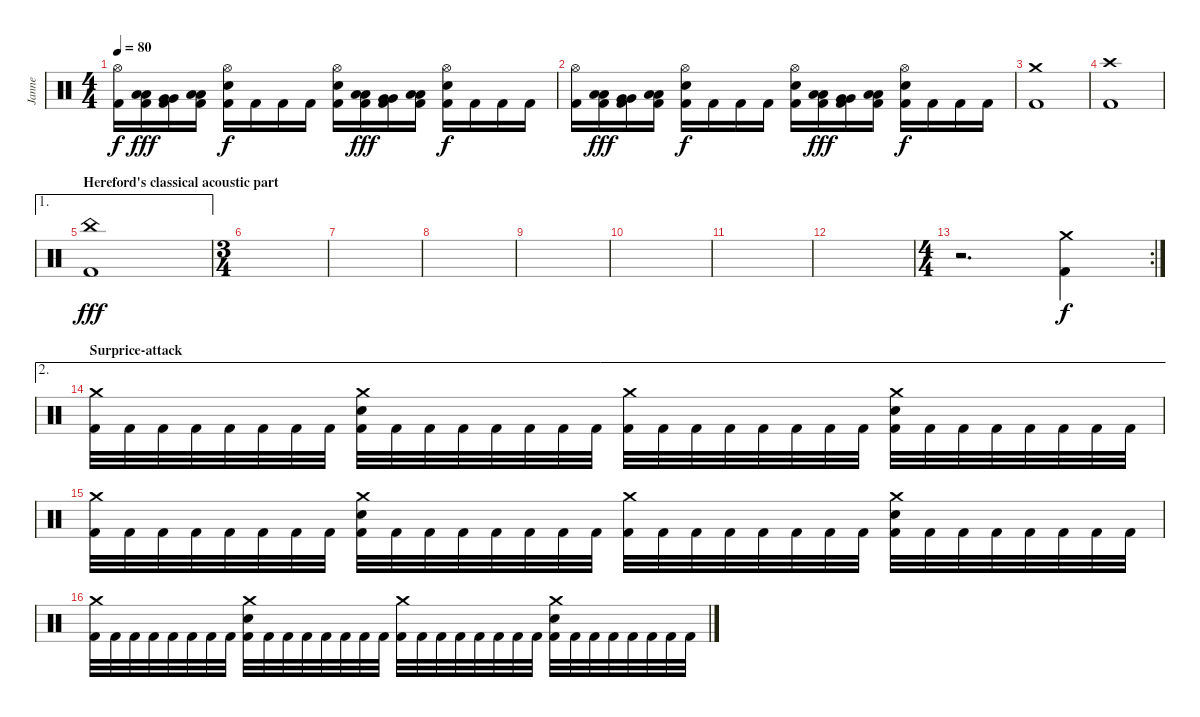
\track ("Janne" "Janne") {instrument percussion}
\staff {score}
\articulation defaults
\ts (4 4)
\tempo 80
\clef neutral
\ks c
("Hi-Hat (open)" "Kick (hit) 2").16{dy f} ("Low Tom (hit)" "Low Tom (hit)" "Kick (hit) 2").16{dy fff} ("Very Low Tom (hit)" "Very Low Tom (hit)" "Kick (hit) 2").16 ("Low Floor Tom (hit)" "Low Floor Tom (hit)" "Kick (hit) 2").16 ("Hi-Hat (open)" "Electric Snare (hit)" "Kick (hit) 2").16{dy f} "Kick (hit) 2".16 "Kick (hit) 2".16 "Kick (hit) 2".16 ("Hi-Hat (open)" "Electric Snare (hit)" "Kick (hit) 2").16 ("Low Tom (hit)" "Low Tom (hit)" "Kick (hit) 2").16{dy fff} ("Very Low Tom (hit)" "Very Low Tom (hit)" "Kick (hit) 2").16 ("Low Floor Tom (hit)" "Low Floor Tom (hit)" "Kick (hit) 2").16 ("Hi-Hat (open)" "Electric Snare (hit)" "Kick (hit) 2").16{dy f} "Kick (hit) 2".16 "Kick (hit) 2".16 "Kick (hit) 2".16 |
("Hi-Hat (open)" "Kick (hit) 2").16 ("Low Tom (hit)" "Low Tom (hit)" "Kick (hit) 2").16{dy fff} ("Very Low Tom (hit)" "Very Low Tom (hit)" "Kick (hit) 2").16 ("Low Floor Tom (hit)" "Low Floor Tom (hit)" "Kick (hit) 2").16 ("Hi-Hat (open)" "Electric Snare (hit)" "Kick (hit) 2").16{dy f} "Kick (hit) 2".16 "Kick (hit) 2".16 "Kick (hit) 2".16 ("Hi-Hat (open)" "Electric Snare (hit)" "Kick (hit) 2").16 ("Low Tom (hit)" "Low Tom (hit)" "Kick (hit) 2").16{dy fff} ("Very Low Tom (hit)" "Very Low Tom (hit)" "Kick (hit) 2").16 ("Low Floor Tom (hit)" "Low Floor Tom (hit)" "Kick (hit) 2").16 ("Hi-Hat (open)" "Electric Snare (hit)" "Kick (hit) 2").16{dy f} "Kick (hit) 2".16 "Kick (hit) 2".16 "Kick (hit) 2".16 |
("Crash medium (hit)" "Kick (hit) 2").1 |
("Crash high (hit)" "Kick (hit) 2").1 |
\ae 1
\section ("" "Hereford's classical acoustic part")
("China (hit)" "Kick (hit) 2").1{dy fff} |
\ts (3 4)
|
|
|
|
|
|
|
\rc 2
\ts (4 4)
r.2{d} ("Crash medium (hit)" "Kick (hit) 2").4{dy f} |
\ae 2
\section ("" "Surprice-attack")
("Crash medium (hit)" "Kick (hit) 2").32 "Kick (hit) 2".32 "Kick (hit) 2".32 "Kick (hit) 2".32 "Kick (hit) 2".32 "Kick (hit) 2".32 "Kick (hit) 2".32 "Kick (hit) 2".32 ("Crash medium (hit)" "Electric Snare (hit)" "Kick (hit) 2").32 "Kick (hit) 2".32 "Kick (hit) 2".32 "Kick (hit) 2".32 "Kick (hit) 2".32 "Kick (hit) 2".32 "Kick (hit) 2".32 "Kick (hit) 2".32 ("Crash medium (hit)" "Kick (hit) 2").32 "Kick (hit) 2".32 "Kick (hit) 2".32 "Kick (hit) 2".32 "Kick (hit) 2".32 "Kick (hit) 2".32 "Kick (hit) 2".32 "Kick (hit) 2".32 ("Crash medium (hit)" "Electric Snare (hit)" "Kick (hit) 2").32 "Kick (hit) 2".32 "Kick (hit) 2".32 "Kick (hit) 2".32 "Kick (hit) 2".32 "Kick (hit) 2".32 "Kick (hit) 2".32 "Kick (hit) 2".32 |
("Crash medium (hit)" "Kick (hit) 2").32 "Kick (hit) 2".32 "Kick (hit) 2".32 "Kick (hit) 2".32 "Kick (hit) 2".32 "Kick (hit) 2".32 "Kick (hit) 2".32 "Kick (hit) 2".32 ("Crash medium (hit)" "Electric Snare (hit)" "Kick (hit) 2").32 "Kick (hit) 2".32 "Kick (hit) 2".32 "Kick (hit) 2".32 "Kick (hit) 2".32 "Kick (hit) 2".32 "Kick (hit) 2".32 "Kick (hit) 2".32 ("Crash medium (hit)" "Kick (hit) 2").32 "Kick (hit) 2".32 "Kick (hit) 2".32 "Kick (hit) 2".32 "Kick (hit) 2".32 "Kick (hit) 2".32 "Kick (hit) 2".32 "Kick (hit) 2".32 ("Crash medium (hit)" "Electric Snare (hit)" "Kick (hit) 2").32 "Kick (hit) 2".32 "Kick (hit) 2".32 "Kick (hit) 2".32 "Kick (hit) 2".32 "Kick (hit) 2".32 "Kick (hit) 2".32 "Kick (hit) 2".32 |
("Crash medium (hit)" "Kick (hit) 2").32 "Kick (hit) 2".32 "Kick (hit) 2".32 "Kick (hit) 2".32 "Kick (hit) 2".32 "Kick (hit) 2".32 "Kick (hit) 2".32 "Kick (hit) 2".32 ("Crash medium (hit)" "Electric Snare (hit)" "Kick (hit) 2").32 "Kick (hit) 2".32 "Kick (hit) 2".32 "Kick (hit) 2".32 "Kick (hit) 2".32 "Kick (hit) 2".32 "Kick (hit) 2".32 "Kick (hit) 2".32 ("Crash medium (hit)" "Kick (hit) 2").32 "Kick (hit) 2".32 "Kick (hit) 2".32 "Kick (hit) 2".32 "Kick (hit) 2".32 "Kick (hit) 2".32 "Kick (hit) 2".32 "Kick (hit) 2".32 ("Crash medium (hit)" "Electric Snare (hit)" "Kick (hit) 2").32 "Kick (hit) 2".32 "Kick (hit) 2".32 "Kick (hit) 2".32 "Kick (hit) 2".32 "Kick (hit) 2".32 "Kick (hit) 2".32 "Kick (hit) 2".32
